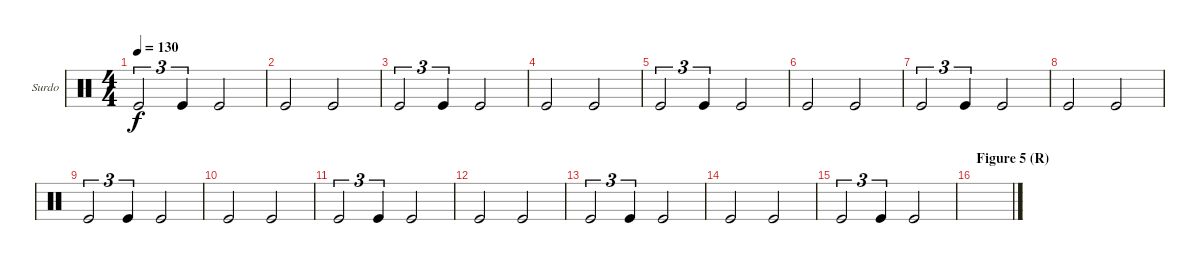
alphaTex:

\defaultSystemsLayout 4
\bracketExtendMode groupsimilarinstruments
\firstSystemTrackNameOrientation horizontal
\otherSystemsTrackNameOrientation horizontal
\track ("Surdo" "Surdo") {instrument percussion}
\staff {score}
\articulation defaults
\ts (4 4)
\tempo 130
\clef neutral
\scale
0.333333
\ks aminor "Kick (hit)".2{tu (3 2) dy f} "Kick (hit)".4{tu (3 2)} "Kick (hit)".2
|
\scale
0.333333 "Kick (hit)".2 "Kick (hit)".2 |
\scale
0.333333 "Kick (hit)".2{tu (3 2)} "Kick (hit)".4{tu (3 2)} "Kick (hit)".2 |
\scale
0.333333 "Kick (hit)".2 "Kick (hit)".2 |
\scale
0.333333 "Kick (hit)".2{tu (3 2)} "Kick (hit)".4{tu (3 2)} "Kick (hit)".2 |
\scale
0.333333 "Kick (hit)".2 "Kick (hit)".2 |
\scale
0.333333 "Kick (hit)".2{tu (3 2)} "Kick (hit)".4{tu (3 2)} "Kick (hit)".2 |
\scale
0.333333 "Kick (hit)".2 "Kick (hit)".2 |
\scale
0.333333 "Kick (hit)".2{tu (3 2)} "Kick (hit)".4{tu (3 2)} "Kick (hit)".2 |
\scale
0.333333 "Kick (hit)".2 "Kick (hit)".2 |
\scale
0.333333 "Kick (hit)".2{tu (3 2)} "Kick (hit)".4{tu (3 2)} "Kick (hit)".2 |
\scale
0.333333 "Kick (hit)".2 "Kick (hit)".2 |
\scale
0.333333 "Kick (hit)".2{tu (3 2)} "Kick (hit)".4{tu (3 2)} "Kick (hit)".2 |
\scale
0.333333 "Kick (hit)".2 "Kick (hit)".2 |
\scale
0.333333 "Kick (hit)".2{tu (3 2)} "Kick (hit)".4{tu (3 2)} "Kick (hit)".2 |
\section ("" "Figure 5 (R)")
\scale
0.333333
